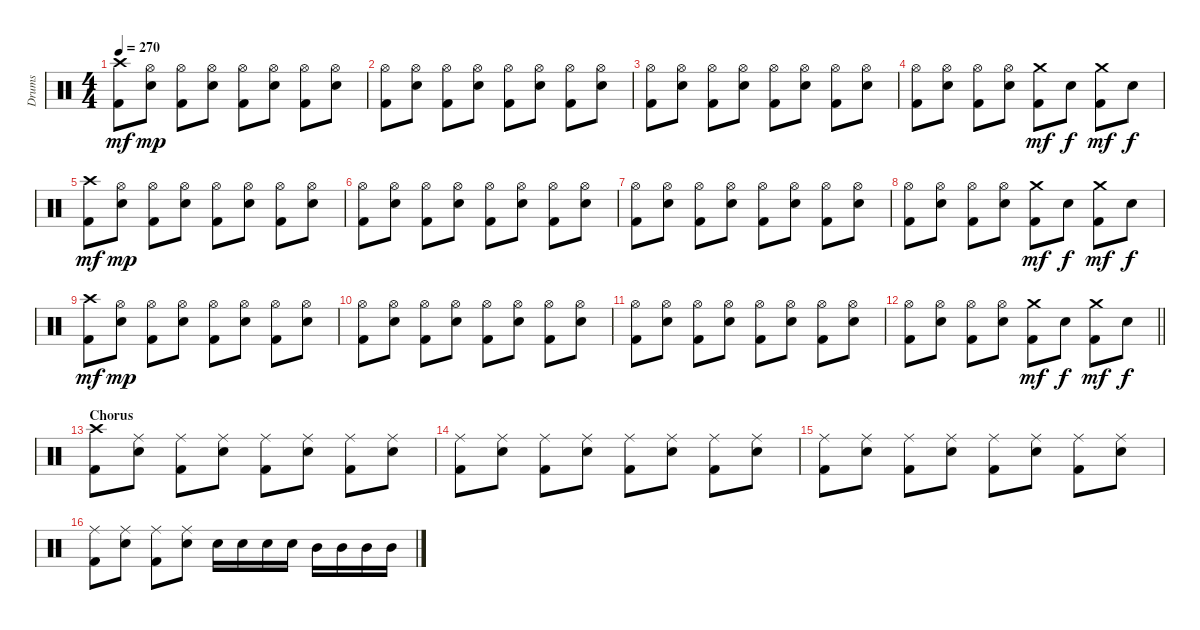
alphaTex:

\track ("Drums" "Drums") {instrument percussion}
\staff {score}
\articulation defaults
\ts (4 4)
\tempo 270
\clef neutral
\ks c
("Crash high (hit)" "Kick (hit) 2").8{dy mf} ("Hi-Hat (open)" "Snare (hit) 2").8{dy mp} ("Hi-Hat (open)" "Kick (hit) 2").8 ("Hi-Hat (open)" "Snare (hit) 2").8 ("Hi-Hat (open)" "Kick (hit) 2").8 ("Hi-Hat (open)" "Snare (hit) 2").8 ("Hi-Hat (open)" "Kick (hit) 2").8 ("Hi-Hat (open)" "Snare (hit) 2").8 |
("Hi-Hat (open)" "Kick (hit) 2").8 ("Hi-Hat (open)" "Snare (hit) 2").8 ("Hi-Hat (open)" "Kick (hit) 2").8 ("Hi-Hat (open)" "Snare (hit) 2").8 ("Hi-Hat (open)" "Kick (hit) 2").8 ("Hi-Hat (open)" "Snare (hit) 2").8 ("Hi-Hat (open)" "Kick (hit) 2").8 ("Hi-Hat (open)" "Snare (hit) 2").8 |
("Hi-Hat (open)" "Kick (hit) 2").8 ("Hi-Hat (open)" "Snare (hit) 2").8 ("Hi-Hat (open)" "Kick (hit) 2").8 ("Hi-Hat (open)" "Snare (hit) 2").8 ("Hi-Hat (open)" "Kick (hit) 2").8 ("Hi-Hat (open)" "Snare (hit) 2").8 ("Hi-Hat (open)" "Kick (hit) 2").8 ("Hi-Hat (open)" "Snare (hit) 2").8 |
("Hi-Hat (open)" "Kick (hit) 2").8 ("Hi-Hat (open)" "Snare (hit) 2").8 ("Hi-Hat (open)" "Kick (hit) 2").8 ("Hi-Hat (open)" "Snare (hit) 2").8 ("Crash medium (hit)" "Kick (hit) 2").8{dy mf} "Snare (hit) 2".8{dy f} ("Crash medium (hit)" "Kick (hit) 2").8{dy mf} "Snare (hit) 2".8{dy f} |
("Crash high (hit)" "Kick (hit) 2").8{dy mf} ("Hi-Hat (open)" "Snare (hit) 2").8{dy mp} ("Hi-Hat (open)" "Kick (hit) 2").8 ("Hi-Hat (open)" "Snare (hit) 2").8 ("Hi-Hat (open)" "Kick (hit) 2").8 ("Hi-Hat (open)" "Snare (hit) 2").8 ("Hi-Hat (open)" "Kick (hit) 2").8 ("Hi-Hat (open)" "Snare (hit) 2").8 |
("Hi-Hat (open)" "Kick (hit) 2").8 ("Hi-Hat (open)" "Snare (hit) 2").8 ("Hi-Hat (open)" "Kick (hit) 2").8 ("Hi-Hat (open)" "Snare (hit) 2").8 ("Hi-Hat (open)" "Kick (hit) 2").8 ("Hi-Hat (open)" "Snare (hit) 2").8 ("Hi-Hat (open)" "Kick (hit) 2").8 ("Hi-Hat (open)" "Snare (hit) 2").8 |
("Hi-Hat (open)" "Kick (hit) 2").8 ("Hi-Hat (open)" "Snare (hit) 2").8 ("Hi-Hat (open)" "Kick (hit) 2").8 ("Hi-Hat (open)" "Snare (hit) 2").8 ("Hi-Hat (open)" "Kick (hit) 2").8 ("Hi-Hat (open)" "Snare (hit) 2").8 ("Hi-Hat (open)" "Kick (hit) 2").8 ("Hi-Hat (open)" "Snare (hit) 2").8 |
("Hi-Hat (open)" "Kick (hit) 2").8 ("Hi-Hat (open)" "Snare (hit) 2").8 ("Hi-Hat (open)" "Kick (hit) 2").8 ("Hi-Hat (open)" "Snare (hit) 2").8 ("Crash medium (hit)" "Kick (hit) 2").8{dy mf} "Snare (hit) 2".8{dy f} ("Crash medium (hit)" "Kick (hit) 2").8{dy mf} "Snare (hit) 2".8{dy f} |
("Crash high (hit)" "Kick (hit) 2").8{dy mf} ("Hi-Hat (open)" "Snare (hit) 2").8{dy mp} ("Hi-Hat (open)" "Kick (hit) 2").8 ("Hi-Hat (open)" "Snare (hit) 2").8 ("Hi-Hat (open)" "Kick (hit) 2").8 ("Hi-Hat (open)" "Snare (hit) 2").8 ("Hi-Hat (open)" "Kick (hit) 2").8 ("Hi-Hat (open)" "Snare (hit) 2").8 |
("Hi-Hat (open)" "Kick (hit) 2").8 ("Hi-Hat (open)" "Snare (hit) 2").8 ("Hi-Hat (open)" "Kick (hit) 2").8 ("Hi-Hat (open)" "Snare (hit) 2").8 ("Hi-Hat (open)" "Kick (hit) 2").8 ("Hi-Hat (open)" "Snare (hit) 2").8 ("Hi-Hat (open)" "Kick (hit) 2").8 ("Hi-Hat (open)" "Snare (hit) 2").8 |
("Hi-Hat (open)" "Kick (hit) 2").8 ("Hi-Hat (open)" "Snare (hit) 2").8 ("Hi-Hat (open)" "Kick (hit) 2").8 ("Hi-Hat (open)" "Snare (hit) 2").8 ("Hi-Hat (open)" "Kick (hit) 2").8 ("Hi-Hat (open)" "Snare (hit) 2").8 ("Hi-Hat (open)" "Kick (hit) 2").8 ("Hi-Hat (open)" "Snare (hit) 2").8 |
\barLineRight lightlight
("Hi-Hat (open)" "Kick (hit) 2").8 ("Hi-Hat (open)" "Snare (hit) 2").8 ("Hi-Hat (open)" "Kick (hit) 2").8 ("Hi-Hat (open)" "Snare (hit) 2").8 ("Crash medium (hit)" "Kick (hit) 2").8{dy mf} "Snare (hit) 2".8{dy f} ("Crash medium (hit)" "Kick (hit) 2").8{dy mf} "Snare (hit) 2".8{dy f} |
\section ("" "Chorus")
("Crash high (hit)" "Kick (hit) 2").8 ("Ride (middle)" "Snare (hit) 2").8 ("Ride (middle)" "Kick (hit) 2").8 ("Ride (middle)" "Snare (hit) 2").8 ("Ride (middle)" "Kick (hit) 2").8 ("Ride (middle)" "Snare (hit) 2").8 ("Ride (middle)" "Kick (hit) 2").8 ("Ride (middle)" "Snare (hit) 2").8 |
("Ride (middle)" "Kick (hit) 2").8 ("Ride (middle)" "Snare (hit) 2").8 ("Ride (middle)" "Kick (hit) 2").8 ("Ride (middle)" "Snare (hit) 2").8 ("Ride (middle)" "Kick (hit) 2").8 ("Ride (middle)" "Snare (hit) 2").8 ("Ride (middle)" "Kick (hit) 2").8 ("Ride (middle)" "Snare (hit) 2").8 |
("Ride (middle)" "Kick (hit) 2").8 ("Ride (middle)" "Snare (hit) 2").8 ("Ride (middle)" "Kick (hit) 2").8 ("Ride (middle)" "Snare (hit) 2").8 ("Ride (middle)" "Kick (hit) 2").8 ("Ride (middle)" "Snare (hit) 2").8 ("Ride (middle)" "Kick (hit) 2").8 ("Ride (middle)" "Snare (hit) 2").8 |
("Ride (middle)" "Kick (hit) 2").8 ("Ride (middle)" "Snare (hit) 2").8 ("Ride (middle)" "Kick (hit) 2").8 ("Ride (middle)" "Snare (hit) 2").8 "Snare (hit) 2".16 "Snare (hit) 2".16 "Snare (hit) 2".16 "Snare (hit) 2".16 "Mid Tom (hit)".16 "Mid Tom (hit)".16 "Mid Tom (hit)".16 "Mid Tom (hit)".16
